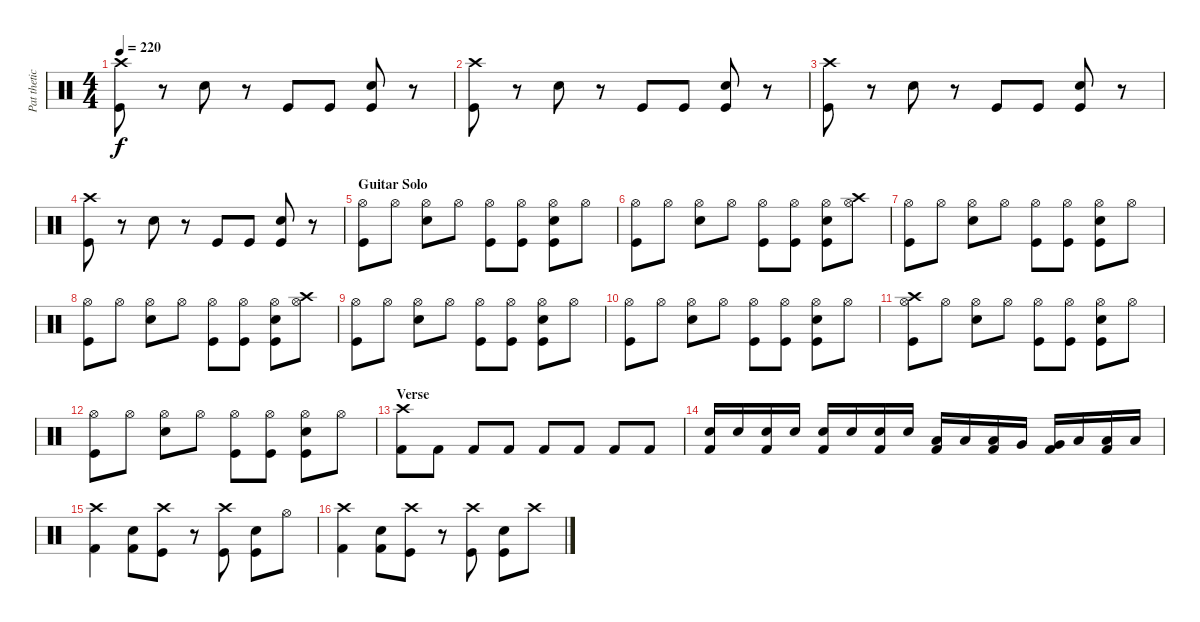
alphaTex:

\track ("Pat thetic " "Pat thetic") {instrument percussion}
\staff {score}
\articulation defaults
\ts (4 4)
\tempo 220
\clef neutral
\ks c
("Kick (hit)" "Crash high (hit)").8{dy f} r.8 "Electric Snare (hit)".8 r.8 "Kick (hit)".8 "Kick (hit)".8 ("Kick (hit)" "Electric Snare (hit)").8 r.8 |
("Kick (hit)" "Crash high (hit)").8 r.8 "Electric Snare (hit)".8 r.8 "Kick (hit)".8 "Kick (hit)".8 ("Kick (hit)" "Electric Snare (hit)").8 r.8 |
("Kick (hit)" "Crash high (hit)").8 r.8 "Electric Snare (hit)".8 r.8 "Kick (hit)".8 "Kick (hit)".8 ("Kick (hit)" "Electric Snare (hit)").8 r.8 |
("Kick (hit)" "Crash high (hit)").8 r.8 "Electric Snare (hit)".8 r.8 "Kick (hit)".8 "Kick (hit)".8 ("Kick (hit)" "Electric Snare (hit)").8 r.8 |
\section ("" "Guitar Solo")
("Kick (hit)" "Hi-Hat (open)").8 "Hi-Hat (open)".8 ("Electric Snare (hit)" "Hi-Hat (open)").8 "Hi-Hat (open)".8 ("Kick (hit)" "Hi-Hat (open)").8 ("Kick (hit)" "Hi-Hat (open)").8 ("Kick (hit)" "Electric Snare (hit)" "Hi-Hat (open)").8 "Hi-Hat (open)".8 |
("Kick (hit)" "Hi-Hat (open)").8 "Hi-Hat (open)".8 ("Electric Snare (hit)" "Hi-Hat (open)").8 "Hi-Hat (open)".8 ("Kick (hit)" "Hi-Hat (open)").8 ("Kick (hit)" "Hi-Hat (open)").8 ("Kick (hit)" "Electric Snare (hit)" "Hi-Hat (open)").8 ("Crash high (hit)" "Hi-Hat (open)").8 |
("Kick (hit)" "Hi-Hat (open)").8 "Hi-Hat (open)".8 ("Electric Snare (hit)" "Hi-Hat (open)").8 "Hi-Hat (open)".8 ("Kick (hit)" "Hi-Hat (open)").8 ("Kick (hit)" "Hi-Hat (open)").8 ("Kick (hit)" "Electric Snare (hit)" "Hi-Hat (open)").8 "Hi-Hat (open)".8 |
("Kick (hit)" "Hi-Hat (open)").8 "Hi-Hat (open)".8 ("Electric Snare (hit)" "Hi-Hat (open)").8 "Hi-Hat (open)".8 ("Kick (hit)" "Hi-Hat (open)").8 ("Kick (hit)" "Hi-Hat (open)").8 ("Kick (hit)" "Electric Snare (hit)" "Hi-Hat (open)").8 ("Crash high (hit)" "Hi-Hat (open)").8 |
("Kick (hit)" "Hi-Hat (open)").8 "Hi-Hat (open)".8 ("Electric Snare (hit)" "Hi-Hat (open)").8 "Hi-Hat (open)".8 ("Kick (hit)" "Hi-Hat (open)").8 ("Kick (hit)" "Hi-Hat (open)").8 ("Kick (hit)" "Electric Snare (hit)" "Hi-Hat (open)").8 "Hi-Hat (open)".8 |
("Kick (hit)" "Hi-Hat (open)").8 "Hi-Hat (open)".8 ("Electric Snare (hit)" "Hi-Hat (open)").8 "Hi-Hat (open)".8 ("Kick (hit)" "Hi-Hat (open)").8 ("Kick (hit)" "Hi-Hat (open)").8 ("Kick (hit)" "Electric Snare (hit)" "Hi-Hat (open)").8 "Hi-Hat (open)".8 |
("Kick (hit)" "Crash high (hit)" "Hi-Hat (open)").8 "Hi-Hat (open)".8 ("Electric Snare (hit)" "Hi-Hat (open)").8 "Hi-Hat (open)".8 ("Kick (hit)" "Hi-Hat (open)").8 ("Kick (hit)" "Hi-Hat (open)").8 ("Kick (hit)" "Electric Snare (hit)" "Hi-Hat (open)").8 "Hi-Hat (open)".8 |
("Kick (hit)" "Hi-Hat (open)").8 "Hi-Hat (open)".8 ("Electric Snare (hit)" "Hi-Hat (open)").8 "Hi-Hat (open)".8 ("Kick (hit)" "Hi-Hat (open)").8 ("Kick (hit)" "Hi-Hat (open)").8 ("Kick (hit)" "Electric Snare (hit)" "Hi-Hat (open)").8 "Hi-Hat (open)".8 |
\section ("" "Verse")
("Kick (hit) 2" "Crash high (hit)").8 "Kick (hit) 2".8 "Kick (hit) 2".8 "Kick (hit) 2".8 "Kick (hit) 2".8 "Kick (hit) 2".8 "Kick (hit) 2".8 "Kick (hit) 2".8 |
("Kick (hit) 2" "Electric Snare (hit)").16 "Electric Snare (hit)".16 ("Kick (hit) 2" "Electric Snare (hit)").16 "Electric Snare (hit)".16 ("Kick (hit) 2" "Electric Snare (hit)").16 "Electric Snare (hit)".16 ("Kick (hit) 2" "Electric Snare (hit)").16 "Electric Snare (hit)".16 ("Kick (hit) 2" "Low Tom (hit)").16 "Low Tom (hit)".16 ("Kick (hit) 2" "Low Tom (hit)").16 "Very Low Tom (hit)".16 ("Kick (hit) 2" "Very Low Tom (hit)").16 "Low Floor Tom (hit)".16 ("Kick (hit) 2" "Low Floor Tom (hit)").16 "Low Floor Tom (hit)".16 |
("Kick (hit) 2" "Crash high (hit)").4 ("Kick (hit) 2" "Electric Snare (hit)").8 ("Kick (hit)" "Crash high (hit)").8 r.8 ("Kick (hit)" "Crash high (hit)").8 ("Kick (hit)" "Electric Snare (hit)").8 "Hi-Hat (open)".8 |
("Kick (hit) 2" "Crash high (hit)").4 ("Kick (hit) 2" "Electric Snare (hit)").8 ("Kick (hit)" "Crash high (hit)").8 r.8 ("Kick (hit)" "Crash high (hit)").8 ("Kick (hit)" "Electric Snare (hit)").8 "Crash high (hit)".8
